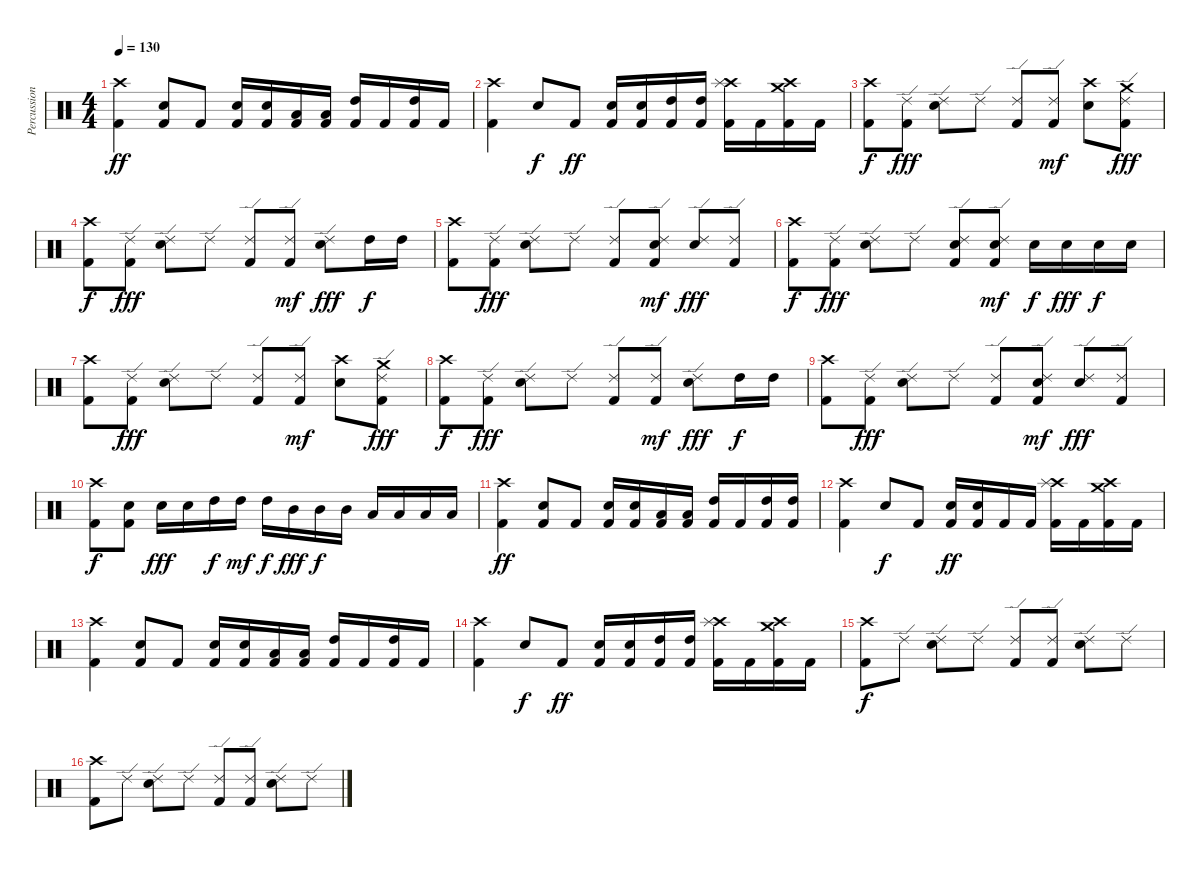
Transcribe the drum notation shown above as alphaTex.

\track ("Percussion" "Percussion") {instrument percussion}
\staff {score}
\articulation defaults
\ts (4 4)
\tempo 130
\clef neutral
\ks c
("Crash high (hit)" "Kick (hit) 2").4{dy ff} ("Snare (hit) 2" "Kick (hit) 2").8 "Kick (hit) 2".8 ("Snare (hit) 2" "Kick (hit) 2").16 ("Snare (hit) 2" "Kick (hit) 2").16 ("Low Tom (hit)" "Kick (hit) 2").16 ("Low Tom (hit)" "Kick (hit) 2").16 ("High Tom (hit)" "Kick (hit) 2").16 "Kick (hit) 2".16 ("High Tom (hit)" "Kick (hit) 2").16 "Kick (hit) 2".16 |
("Crash high (hit)" "Kick (hit) 2").4 "Snare (hit) 2".8{dy f} "Kick (hit) 2".8{dy ff} ("Snare (hit) 2" "Kick (hit) 2").16 ("Snare (hit) 2" "Kick (hit) 2").16 ("High Tom (hit)" "Kick (hit) 2").16 ("High Tom (hit)" "Kick (hit) 2").16 ("Crash high (hit)" "Splash (hit)" "Kick (hit) 2").16 "Kick (hit) 2".16 ("Crash high (hit)" "Crash medium (hit)" "Kick (hit) 2").16 "Kick (hit) 2".16 |
("Crash high (hit)" "Kick (hit) 2").8{dy f} ("Ride (edge) 2" "Kick (hit) 2").8{dy fff} ("Ride (edge) 2" "Snare (hit) 2").8 "Ride (edge) 2".8 ("Ride (edge) 2" "Kick (hit) 2").8 ("Ride (edge) 2" "Kick (hit) 2").8{dy mf} ("Crash high (hit)" "Snare (hit) 2").8 ("Crash medium (hit)" "Ride (edge) 2" "Kick (hit) 2").8{dy fff} |
("Crash high (hit)" "Kick (hit) 2").8{dy f} ("Ride (edge) 2" "Kick (hit) 2").8{dy fff} ("Ride (edge) 2" "Snare (hit) 2").8 "Ride (edge) 2".8 ("Ride (edge) 2" "Kick (hit) 2").8 ("Ride (edge) 2" "Kick (hit) 2").8{dy mf} ("Ride (edge) 2" "Snare (hit) 2").8{dy fff} "High Tom (hit)".16{dy f} "High Tom (hit)".16 |
("Crash high (hit)" "Kick (hit) 2").8 ("Ride (edge) 2" "Kick (hit) 2").8{dy fff} ("Ride (edge) 2" "Snare (hit) 2").8 "Ride (edge) 2".8 ("Ride (edge) 2" "Kick (hit) 2").8 ("Ride (edge) 2" "Snare (hit) 2" "Kick (hit) 2").8{dy mf} ("Ride (edge) 2" "Snare (hit) 2").8{dy fff} ("Ride (edge) 2" "Kick (hit) 2").8 |
("Crash high (hit)" "Kick (hit) 2").8{dy f} ("Ride (edge) 2" "Kick (hit) 2").8{dy fff} ("Ride (edge) 2" "Snare (hit) 2").8 "Ride (edge) 2".8 ("Ride (edge) 2" "Snare (hit) 2" "Kick (hit) 2").8 ("Ride (edge) 2" "Snare (hit) 2" "Kick (hit) 2").8{dy mf} "Snare (hit) 2".16{dy f} "Snare (hit) 2".16{dy fff} "Snare (hit) 2".16{dy f} "Snare (hit) 2".16 |
("Crash high (hit)" "Kick (hit) 2").8 ("Ride (edge) 2" "Kick (hit) 2").8{dy fff} ("Ride (edge) 2" "Snare (hit) 2").8 "Ride (edge) 2".8 ("Ride (edge) 2" "Kick (hit) 2").8 ("Ride (edge) 2" "Kick (hit) 2").8{dy mf} ("Crash high (hit)" "Snare (hit) 2").8 ("Crash medium (hit)" "Ride (edge) 2" "Kick (hit) 2").8{dy fff} |
("Crash high (hit)" "Kick (hit) 2").8{dy f} ("Ride (edge) 2" "Kick (hit) 2").8{dy fff} ("Ride (edge) 2" "Snare (hit) 2").8 "Ride (edge) 2".8 ("Ride (edge) 2" "Kick (hit) 2").8 ("Ride (edge) 2" "Kick (hit) 2").8{dy mf} ("Ride (edge) 2" "Snare (hit) 2").8{dy fff} "High Tom (hit)".16{dy f} "High Tom (hit)".16 |
("Crash high (hit)" "Kick (hit) 2").8 ("Ride (edge) 2" "Kick (hit) 2").8{dy fff} ("Ride (edge) 2" "Snare (hit) 2").8 "Ride (edge) 2".8 ("Ride (edge) 2" "Kick (hit) 2").8 ("Ride (edge) 2" "Snare (hit) 2" "Kick (hit) 2").8{dy mf} ("Ride (edge) 2" "Snare (hit) 2").8{dy fff} ("Ride (edge) 2" "Kick (hit) 2").8 |
("Crash high (hit)" "Kick (hit) 2").8{dy f} ("Snare (hit) 2" "Kick (hit) 2").8 "Snare (hit) 2".16{dy fff} "Snare (hit) 2".16 "High Tom (hit)".16{dy f} "High Tom (hit)".16{dy mf} "High Tom (hit)".16{dy f} "Mid Tom (hit)".16{dy fff} "Mid Tom (hit)".16{dy f} "Mid Tom (hit)".16 "Low Tom (hit)".16 "Low Tom (hit)".16 "Low Floor Tom (hit)".16 "Low Floor Tom (hit)".16 |
("Crash high (hit)" "Kick (hit) 2").4{dy ff} ("Snare (hit) 2" "Kick (hit) 2").8 "Kick (hit) 2".8 ("Snare (hit) 2" "Kick (hit) 2").16 ("Snare (hit) 2" "Kick (hit) 2").16 ("Low Tom (hit)" "Kick (hit) 2").16 ("Low Tom (hit)" "Kick (hit) 2").16 ("High Tom (hit)" "Kick (hit) 2").16 "Kick (hit) 2".16 ("High Tom (hit)" "Kick (hit) 2").16 ("High Tom (hit)" "Kick (hit) 2").16 |
("Crash high (hit)" "Kick (hit) 2").4 "Snare (hit) 2".8{dy f} "Kick (hit) 2".8 ("Snare (hit) 2" "Kick (hit) 2").16{dy ff} ("Snare (hit) 2" "Kick (hit) 2").16 "Kick (hit) 2".16 "Kick (hit) 2".16 ("Crash high (hit)" "Splash (hit)" "Kick (hit) 2").16 "Kick (hit) 2".16 ("Crash high (hit)" "Crash medium (hit)" "Kick (hit) 2").16 "Kick (hit) 2".16 |
("Crash high (hit)" "Kick (hit) 2").4 ("Snare (hit) 2" "Kick (hit) 2").8 "Kick (hit) 2".8 ("Snare (hit) 2" "Kick (hit) 2").16 ("Snare (hit) 2" "Kick (hit) 2").16 ("Low Tom (hit)" "Kick (hit) 2").16 ("Low Tom (hit)" "Kick (hit) 2").16 ("High Tom (hit)" "Kick (hit) 2").16 "Kick (hit) 2".16 ("High Tom (hit)" "Kick (hit) 2").16 "Kick (hit) 2".16 |
("Crash high (hit)" "Kick (hit) 2").4 "Snare (hit) 2".8{dy f} "Kick (hit) 2".8{dy ff} ("Snare (hit) 2" "Kick (hit) 2").16 ("Snare (hit) 2" "Kick (hit) 2").16 ("High Tom (hit)" "Kick (hit) 2").16 ("High Tom (hit)" "Kick (hit) 2").16 ("Crash high (hit)" "Splash (hit)" "Kick (hit) 2").16 "Kick (hit) 2".16 ("Crash high (hit)" "Crash medium (hit)" "Kick (hit) 2").16 "Kick (hit) 2".16 |
("Crash high (hit)" "Kick (hit) 2").8{dy f} "Ride (edge) 2".8 ("Ride (edge) 2" "Snare (hit) 2").8 "Ride (edge) 2".8 ("Ride (edge) 2" "Kick (hit) 2").8 ("Ride (edge) 2" "Kick (hit) 2").8 ("Ride (edge) 2" "Snare (hit) 2").8 "Ride (edge) 2".8 |
("Crash high (hit)" "Kick (hit) 2").8 "Ride (edge) 2".8 ("Ride (edge) 2" "Snare (hit) 2").8 "Ride (edge) 2".8 ("Ride (edge) 2" "Kick (hit) 2").8 ("Ride (edge) 2" "Kick (hit) 2").8 ("Ride (edge) 2" "Snare (hit) 2").8 "Ride (edge) 2".8
